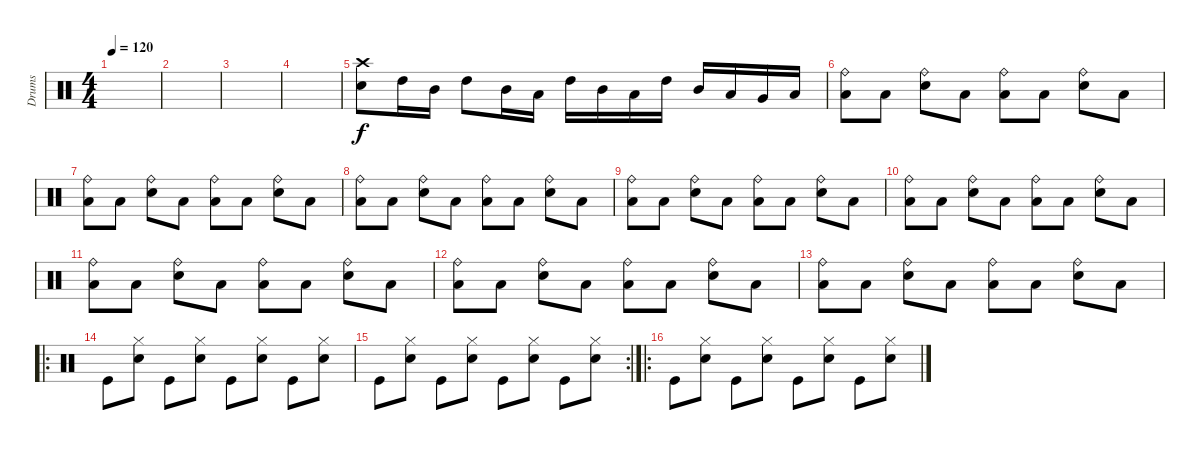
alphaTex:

\track ("Drums" "Drums") {instrument percussion}
\staff {score}
\articulation defaults
\ts (4 4)
\tempo 120
\clef neutral
\ks c
|
|
|
|
("Crash high (hit)" "Snare (hit) 2").8 "High Tom (hit)".16 "Mid Tom (hit)".16 "High Tom (hit)".8 "Mid Tom (hit)".16 "Low Tom (hit)".16 "High Tom (hit)".16 "Mid Tom (hit)".16 "Low Tom (hit)".16 "High Tom (hit)".16 "Mid Tom (hit)".16 "Low Tom (hit)".16 "Very Low Tom (hit)".16 "Low Floor Tom (hit)".16 |
("Ride (bell)" "Low Floor Tom (hit)").8 "Low Floor Tom (hit)".8 ("Ride (bell)" "Snare (hit) 2").8 "Low Floor Tom (hit)".8 ("Ride (bell)" "Low Floor Tom (hit)").8 "Low Floor Tom (hit)".8 ("Ride (bell)" "Snare (hit) 2").8 "Low Floor Tom (hit)".8 |
("Ride (bell)" "Low Floor Tom (hit)").8 "Low Floor Tom (hit)".8 ("Ride (bell)" "Snare (hit) 2").8 "Low Floor Tom (hit)".8 ("Ride (bell)" "Low Floor Tom (hit)").8 "Low Floor Tom (hit)".8 ("Ride (bell)" "Snare (hit) 2").8 "Low Floor Tom (hit)".8 |
("Ride (bell)" "Low Floor Tom (hit)").8 "Low Floor Tom (hit)".8 ("Ride (bell)" "Snare (hit) 2").8 "Low Floor Tom (hit)".8 ("Ride (bell)" "Low Floor Tom (hit)").8 "Low Floor Tom (hit)".8 ("Ride (bell)" "Snare (hit) 2").8 "Low Floor Tom (hit)".8 |
("Ride (bell)" "Low Floor Tom (hit)").8 "Low Floor Tom (hit)".8 ("Ride (bell)" "Snare (hit) 2").8 "Low Floor Tom (hit)".8 ("Ride (bell)" "Low Floor Tom (hit)").8 "Low Floor Tom (hit)".8 ("Ride (bell)" "Snare (hit) 2").8 "Low Floor Tom (hit)".8 |
("Ride (bell)" "Low Floor Tom (hit)").8 "Low Floor Tom (hit)".8 ("Ride (bell)" "Snare (hit) 2").8 "Low Floor Tom (hit)".8 ("Ride (bell)" "Low Floor Tom (hit)").8 "Low Floor Tom (hit)".8 ("Ride (bell)" "Snare (hit) 2").8 "Low Floor Tom (hit)".8 |
("Ride (bell)" "Low Floor Tom (hit)").8 "Low Floor Tom (hit)".8 ("Ride (bell)" "Snare (hit) 2").8 "Low Floor Tom (hit)".8 ("Ride (bell)" "Low Floor Tom (hit)").8 "Low Floor Tom (hit)".8 ("Ride (bell)" "Snare (hit) 2").8 "Low Floor Tom (hit)".8 |
("Ride (bell)" "Low Floor Tom (hit)").8 "Low Floor Tom (hit)".8 ("Ride (bell)" "Snare (hit) 2").8 "Low Floor Tom (hit)".8 ("Ride (bell)" "Low Floor Tom (hit)").8 "Low Floor Tom (hit)".8 ("Ride (bell)" "Snare (hit) 2").8 "Low Floor Tom (hit)".8 |
("Ride (bell)" "Low Floor Tom (hit)").8 "Low Floor Tom (hit)".8 ("Ride (bell)" "Snare (hit) 2").8 "Low Floor Tom (hit)".8 ("Ride (bell)" "Low Floor Tom (hit)").8 "Low Floor Tom (hit)".8 ("Ride (bell)" "Snare (hit) 2").8 "Low Floor Tom (hit)".8 |
\ro "Kick (hit)".8
("Hi-Hat (closed)" "Snare (hit) 2").8 "Kick (hit)".8 ("Hi-Hat (closed)" "Snare (hit) 2").8 "Kick (hit)".8 ("Hi-Hat (closed)" "Snare (hit) 2").8 "Kick (hit)".8 ("Hi-Hat (closed)" "Snare (hit) 2").8 |
\rc 2 "Kick (hit)".8
("Hi-Hat (closed)" "Snare (hit) 2").8 "Kick (hit)".8 ("Hi-Hat (closed)" "Snare (hit) 2").8 "Kick (hit)".8 ("Hi-Hat (closed)" "Snare (hit) 2").8 "Kick (hit)".8 ("Hi-Hat (closed)" "Snare (hit) 2").8 |
\ro "Kick (hit)".8
("Hi-Hat (closed)" "Snare (hit) 2").8 "Kick (hit)".8 ("Hi-Hat (closed)" "Snare (hit) 2").8 "Kick (hit)".8 ("Hi-Hat (closed)" "Snare (hit) 2").8 "Kick (hit)".8 ("Hi-Hat (closed)" "Snare (hit) 2").8
